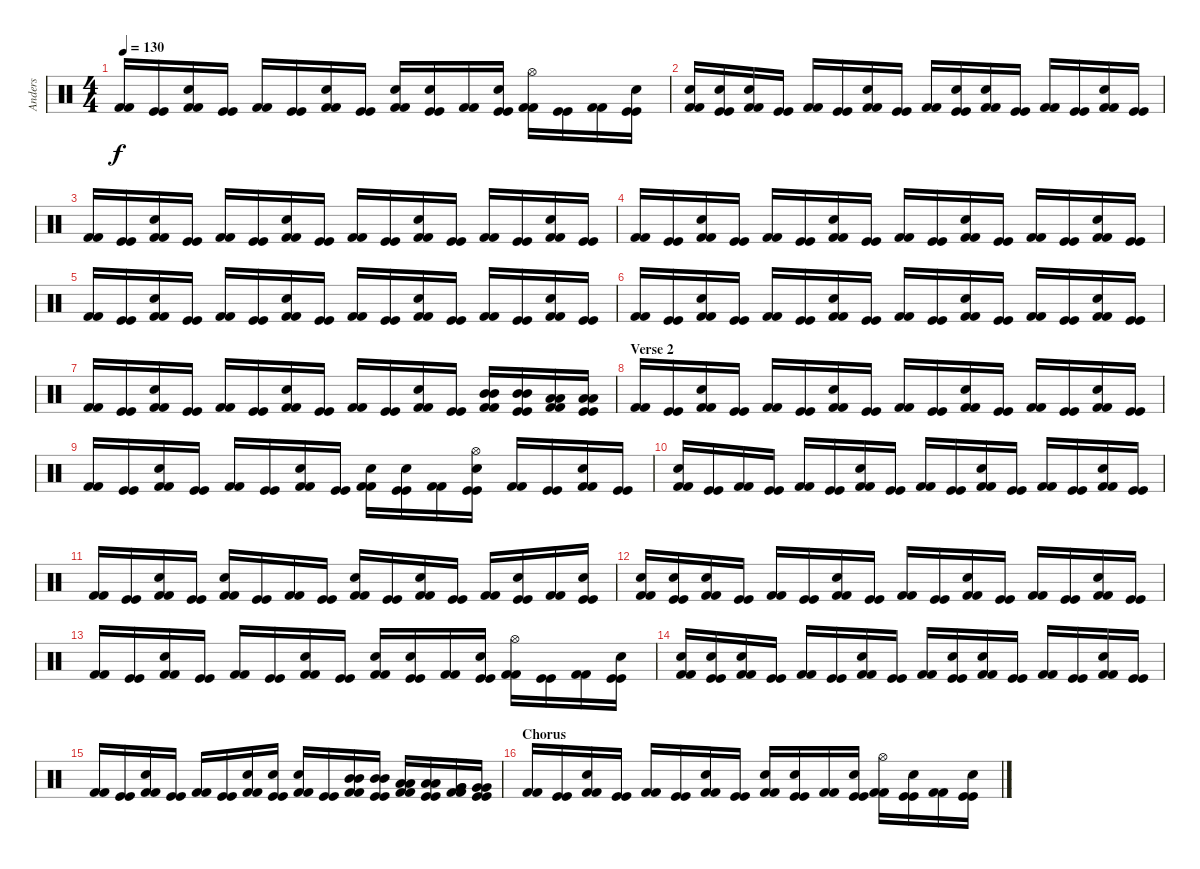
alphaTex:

\track ("Anders" "Anders") {instrument percussion}
\staff {score}
\articulation defaults
\ts (4 4)
\tempo 130
\clef neutral
\ks c
("Kick (hit) 2" "Kick (hit) 2").16{dy f} ("Kick (hit)" "Kick (hit)").16 ("Snare (hit) 2" "Kick (hit) 2" "Kick (hit) 2").16 ("Kick (hit)" "Kick (hit)").16 ("Kick (hit) 2" "Kick (hit) 2").16 ("Kick (hit)" "Kick (hit)").16 ("Snare (hit) 2" "Kick (hit) 2" "Kick (hit) 2").16 ("Kick (hit)" "Kick (hit)").16 ("Snare (hit) 2" "Kick (hit) 2" "Kick (hit) 2").16 ("Snare (hit) 2" "Kick (hit)" "Kick (hit)").16 ("Kick (hit) 2" "Kick (hit) 2").16 ("Snare (hit) 2" "Kick (hit)" "Kick (hit)").16 ("Hi-Hat (open)" "Kick (hit) 2" "Kick (hit) 2").16 ("Kick (hit)" "Kick (hit)").16 ("Kick (hit) 2" "Kick (hit) 2").16 ("Snare (hit) 2" "Kick (hit)" "Kick (hit)").16 |
("Snare (hit) 2" "Kick (hit) 2" "Kick (hit) 2").16 ("Snare (hit) 2" "Kick (hit)" "Kick (hit)").16 ("Snare (hit) 2" "Kick (hit) 2" "Kick (hit) 2").16 ("Kick (hit)" "Kick (hit)").16 ("Kick (hit) 2" "Kick (hit) 2").16 ("Kick (hit)" "Kick (hit)").16 ("Snare (hit) 2" "Kick (hit) 2" "Kick (hit) 2").16 ("Kick (hit)" "Kick (hit)").16 ("Kick (hit) 2" "Kick (hit) 2").16 ("Snare (hit) 2" "Kick (hit)" "Kick (hit)").16 ("Snare (hit) 2" "Kick (hit) 2" "Kick (hit) 2").16 ("Kick (hit)" "Kick (hit)").16 ("Kick (hit) 2" "Kick (hit) 2").16 ("Kick (hit)" "Kick (hit)").16 ("Snare (hit) 2" "Kick (hit) 2" "Kick (hit) 2").16 ("Kick (hit)" "Kick (hit)").16 |
("Kick (hit) 2" "Kick (hit) 2").16 ("Kick (hit)" "Kick (hit)").16 ("Snare (hit) 2" "Kick (hit) 2" "Kick (hit) 2").16 ("Kick (hit)" "Kick (hit)").16 ("Kick (hit) 2" "Kick (hit) 2").16 ("Kick (hit)" "Kick (hit)").16 ("Snare (hit) 2" "Kick (hit) 2" "Kick (hit) 2").16 ("Kick (hit)" "Kick (hit)").16 ("Kick (hit) 2" "Kick (hit) 2").16 ("Kick (hit)" "Kick (hit)").16 ("Snare (hit) 2" "Kick (hit) 2" "Kick (hit) 2").16 ("Kick (hit)" "Kick (hit)").16 ("Kick (hit) 2" "Kick (hit) 2").16 ("Kick (hit)" "Kick (hit)").16 ("Snare (hit) 2" "Kick (hit) 2" "Kick (hit) 2").16 ("Kick (hit)" "Kick (hit)").16 |
("Kick (hit) 2" "Kick (hit) 2").16 ("Kick (hit)" "Kick (hit)").16 ("Snare (hit) 2" "Kick (hit) 2" "Kick (hit) 2").16 ("Kick (hit)" "Kick (hit)").16 ("Kick (hit) 2" "Kick (hit) 2").16 ("Kick (hit)" "Kick (hit)").16 ("Snare (hit) 2" "Kick (hit) 2" "Kick (hit) 2").16 ("Kick (hit)" "Kick (hit)").16 ("Kick (hit) 2" "Kick (hit) 2").16 ("Kick (hit)" "Kick (hit)").16 ("Snare (hit) 2" "Kick (hit) 2" "Kick (hit) 2").16 ("Kick (hit)" "Kick (hit)").16 ("Kick (hit) 2" "Kick (hit) 2").16 ("Kick (hit)" "Kick (hit)").16 ("Snare (hit) 2" "Kick (hit) 2" "Kick (hit) 2").16 ("Kick (hit)" "Kick (hit)").16 |
("Kick (hit) 2" "Kick (hit) 2").16 ("Kick (hit)" "Kick (hit)").16 ("Snare (hit) 2" "Kick (hit) 2" "Kick (hit) 2").16 ("Kick (hit)" "Kick (hit)").16 ("Kick (hit) 2" "Kick (hit) 2").16 ("Kick (hit)" "Kick (hit)").16 ("Snare (hit) 2" "Kick (hit) 2" "Kick (hit) 2").16 ("Kick (hit)" "Kick (hit)").16 ("Kick (hit) 2" "Kick (hit) 2").16 ("Kick (hit)" "Kick (hit)").16 ("Snare (hit) 2" "Kick (hit) 2" "Kick (hit) 2").16 ("Kick (hit)" "Kick (hit)").16 ("Kick (hit) 2" "Kick (hit) 2").16 ("Kick (hit)" "Kick (hit)").16 ("Snare (hit) 2" "Kick (hit) 2" "Kick (hit) 2").16 ("Kick (hit)" "Kick (hit)").16 |
("Kick (hit) 2" "Kick (hit) 2").16 ("Kick (hit)" "Kick (hit)").16 ("Snare (hit) 2" "Kick (hit) 2" "Kick (hit) 2").16 ("Kick (hit)" "Kick (hit)").16 ("Kick (hit) 2" "Kick (hit) 2").16 ("Kick (hit)" "Kick (hit)").16 ("Snare (hit) 2" "Kick (hit) 2" "Kick (hit) 2").16 ("Kick (hit)" "Kick (hit)").16 ("Kick (hit) 2" "Kick (hit) 2").16 ("Kick (hit)" "Kick (hit)").16 ("Snare (hit) 2" "Kick (hit) 2" "Kick (hit) 2").16 ("Kick (hit)" "Kick (hit)").16 ("Kick (hit) 2" "Kick (hit) 2").16 ("Kick (hit)" "Kick (hit)").16 ("Snare (hit) 2" "Kick (hit) 2" "Kick (hit) 2").16 ("Kick (hit)" "Kick (hit)").16 |
("Kick (hit) 2" "Kick (hit) 2").16 ("Kick (hit)" "Kick (hit)").16 ("Snare (hit) 2" "Kick (hit) 2" "Kick (hit) 2").16 ("Kick (hit)" "Kick (hit)").16 ("Kick (hit) 2" "Kick (hit) 2").16 ("Kick (hit)" "Kick (hit)").16 ("Snare (hit) 2" "Kick (hit) 2" "Kick (hit) 2").16 ("Kick (hit)" "Kick (hit)").16 ("Kick (hit) 2" "Kick (hit) 2").16 ("Kick (hit)" "Kick (hit)").16 ("Snare (hit) 2" "Kick (hit) 2" "Kick (hit) 2").16 ("Kick (hit)" "Kick (hit)").16 ("Mid Tom (hit)" "Mid Tom (hit)" "Kick (hit) 2" "Kick (hit) 2").16 ("Mid Tom (hit)" "Mid Tom (hit)" "Kick (hit)" "Kick (hit)").16 ("Low Tom (hit)" "Low Tom (hit)" "Kick (hit) 2" "Kick (hit) 2").16 ("Low Tom (hit)" "Low Tom (hit)" "Kick (hit)" "Kick (hit)").16 |
\section ("" "Verse 2")
("Kick (hit) 2" "Kick (hit) 2").16 ("Kick (hit)" "Kick (hit)").16 ("Snare (hit) 2" "Kick (hit) 2" "Kick (hit) 2").16 ("Kick (hit)" "Kick (hit)").16 ("Kick (hit) 2" "Kick (hit) 2").16 ("Kick (hit)" "Kick (hit)").16 ("Snare (hit) 2" "Kick (hit) 2" "Kick (hit) 2").16 ("Kick (hit)" "Kick (hit)").16 ("Kick (hit) 2" "Kick (hit) 2").16 ("Kick (hit)" "Kick (hit)").16 ("Snare (hit) 2" "Kick (hit) 2" "Kick (hit) 2").16 ("Kick (hit)" "Kick (hit)").16 ("Kick (hit) 2" "Kick (hit) 2").16 ("Kick (hit)" "Kick (hit)").16 ("Snare (hit) 2" "Kick (hit) 2" "Kick (hit) 2").16 ("Kick (hit)" "Kick (hit)").16 |
("Kick (hit) 2" "Kick (hit) 2").16 ("Kick (hit)" "Kick (hit)").16 ("Snare (hit) 2" "Kick (hit) 2" "Kick (hit) 2").16 ("Kick (hit)" "Kick (hit)").16 ("Kick (hit) 2" "Kick (hit) 2").16 ("Kick (hit)" "Kick (hit)").16 ("Snare (hit) 2" "Kick (hit) 2" "Kick (hit) 2").16 ("Kick (hit)" "Kick (hit)").16 ("Snare (hit) 2" "Kick (hit) 2" "Kick (hit) 2").16 ("Snare (hit) 2" "Kick (hit)" "Kick (hit)").16 ("Kick (hit) 2" "Kick (hit) 2").16 ("Hi-Hat (open)" "Snare (hit) 2" "Kick (hit)" "Kick (hit)").16 ("Kick (hit) 2" "Kick (hit) 2").16 ("Kick (hit)" "Kick (hit)").16 ("Snare (hit) 2" "Kick (hit) 2" "Kick (hit) 2").16 ("Kick (hit)" "Kick (hit)").16 |
("Snare (hit) 2" "Kick (hit) 2" "Kick (hit) 2").16 ("Kick (hit)" "Kick (hit)").16 ("Kick (hit) 2" "Kick (hit) 2").16 ("Kick (hit)" "Kick (hit)").16 ("Kick (hit) 2" "Kick (hit) 2").16 ("Kick (hit)" "Kick (hit)").16 ("Snare (hit) 2" "Kick (hit) 2" "Kick (hit) 2").16 ("Kick (hit)" "Kick (hit)").16 ("Kick (hit) 2" "Kick (hit) 2").16 ("Kick (hit)" "Kick (hit)").16 ("Snare (hit) 2" "Kick (hit) 2" "Kick (hit) 2").16 ("Kick (hit)" "Kick (hit)").16 ("Kick (hit) 2" "Kick (hit) 2").16 ("Kick (hit)" "Kick (hit)").16 ("Snare (hit) 2" "Kick (hit) 2" "Kick (hit) 2").16 ("Kick (hit)" "Kick (hit)").16 |
("Kick (hit) 2" "Kick (hit) 2").16 ("Kick (hit)" "Kick (hit)").16 ("Snare (hit) 2" "Kick (hit) 2" "Kick (hit) 2").16 ("Kick (hit)" "Kick (hit)").16 ("Snare (hit) 2" "Kick (hit) 2" "Kick (hit) 2").16 ("Kick (hit)" "Kick (hit)").16 ("Kick (hit) 2" "Kick (hit) 2").16 ("Kick (hit)" "Kick (hit)").16 ("Snare (hit) 2" "Kick (hit) 2" "Kick (hit) 2").16 ("Kick (hit)" "Kick (hit)").16 ("Snare (hit) 2" "Kick (hit) 2" "Kick (hit) 2").16 ("Kick (hit)" "Kick (hit)").16 ("Kick (hit) 2" "Kick (hit) 2").16 ("Snare (hit) 2" "Kick (hit)" "Kick (hit)").16 ("Kick (hit) 2" "Kick (hit) 2").16 ("Snare (hit) 2" "Kick (hit)" "Kick (hit)").16 |
("Snare (hit) 2" "Kick (hit) 2" "Kick (hit) 2").16 ("Snare (hit) 2" "Kick (hit)" "Kick (hit)").16 ("Snare (hit) 2" "Kick (hit) 2" "Kick (hit) 2").16 ("Kick (hit)" "Kick (hit)").16 ("Kick (hit) 2" "Kick (hit) 2").16 ("Kick (hit)" "Kick (hit)").16 ("Snare (hit) 2" "Kick (hit) 2" "Kick (hit) 2").16 ("Kick (hit)" "Kick (hit)").16 ("Kick (hit) 2" "Kick (hit) 2").16 ("Kick (hit)" "Kick (hit)").16 ("Snare (hit) 2" "Kick (hit) 2" "Kick (hit) 2").16 ("Kick (hit)" "Kick (hit)").16 ("Kick (hit) 2" "Kick (hit) 2").16 ("Kick (hit)" "Kick (hit)").16 ("Snare (hit) 2" "Kick (hit) 2" "Kick (hit) 2").16 ("Kick (hit)" "Kick (hit)").16 |
("Kick (hit) 2" "Kick (hit) 2").16 ("Kick (hit)" "Kick (hit)").16 ("Snare (hit) 2" "Kick (hit) 2" "Kick (hit) 2").16 ("Kick (hit)" "Kick (hit)").16 ("Kick (hit) 2" "Kick (hit) 2").16 ("Kick (hit)" "Kick (hit)").16 ("Snare (hit) 2" "Kick (hit) 2" "Kick (hit) 2").16 ("Kick (hit)" "Kick (hit)").16 ("Snare (hit) 2" "Kick (hit) 2" "Kick (hit) 2").16 ("Snare (hit) 2" "Kick (hit)" "Kick (hit)").16 ("Kick (hit) 2" "Kick (hit) 2").16 ("Snare (hit) 2" "Kick (hit)" "Kick (hit)").16 ("Hi-Hat (open)" "Kick (hit) 2" "Kick (hit) 2").16 ("Kick (hit)" "Kick (hit)").16 ("Kick (hit) 2" "Kick (hit) 2").16 ("Snare (hit) 2" "Kick (hit)" "Kick (hit)").16 |
("Snare (hit) 2" "Kick (hit) 2" "Kick (hit) 2").16 ("Snare (hit) 2" "Kick (hit)" "Kick (hit)").16 ("Snare (hit) 2" "Kick (hit) 2" "Kick (hit) 2").16 ("Kick (hit)" "Kick (hit)").16 ("Kick (hit) 2" "Kick (hit) 2").16 ("Kick (hit)" "Kick (hit)").16 ("Snare (hit) 2" "Kick (hit) 2" "Kick (hit) 2").16 ("Kick (hit)" "Kick (hit)").16 ("Kick (hit) 2" "Kick (hit) 2").16 ("Snare (hit) 2" "Kick (hit)" "Kick (hit)").16 ("Snare (hit) 2" "Kick (hit) 2" "Kick (hit) 2").16 ("Kick (hit)" "Kick (hit)").16 ("Kick (hit) 2" "Kick (hit) 2").16 ("Kick (hit)" "Kick (hit)").16 ("Snare (hit) 2" "Kick (hit) 2" "Kick (hit) 2").16 ("Kick (hit)" "Kick (hit)").16 |
("Kick (hit) 2" "Kick (hit) 2").16 ("Kick (hit)" "Kick (hit)").16 ("Snare (hit) 2" "Kick (hit) 2" "Kick (hit) 2").16 ("Kick (hit)" "Kick (hit)").16 ("Kick (hit) 2" "Kick (hit) 2").16 ("Kick (hit)" "Kick (hit)").16 ("Snare (hit) 2" "Kick (hit) 2" "Kick (hit) 2").16 ("Snare (hit) 2" "Kick (hit)" "Kick (hit)").16 ("Snare (hit) 2" "Kick (hit) 2" "Kick (hit) 2").16 ("Kick (hit)" "Kick (hit)").16 ("Mid Tom (hit)" "Mid Tom (hit)" "Kick (hit) 2" "Kick (hit) 2").16 ("Mid Tom (hit)" "Mid Tom (hit)" "Kick (hit)" "Kick (hit)").16 ("Low Tom (hit)" "Low Tom (hit)" "Kick (hit) 2" "Kick (hit) 2").16 ("Low Tom (hit)" "Low Tom (hit)" "Kick (hit)" "Kick (hit)").16 ("Very Low Tom (hit)" "Very Low Tom (hit)" "Kick (hit) 2" "Kick (hit) 2").16 ("Very Low Tom (hit)" "Very Low Tom (hit)" "Kick (hit)" "Kick (hit)").16 |
\section ("" "Chorus")
("Kick (hit) 2" "Kick (hit) 2").16 ("Kick (hit)" "Kick (hit)").16 ("Snare (hit) 2" "Kick (hit) 2" "Kick (hit) 2").16 ("Kick (hit)" "Kick (hit)").16 ("Kick (hit) 2" "Kick (hit) 2").16 ("Kick (hit)" "Kick (hit)").16 ("Snare (hit) 2" "Kick (hit) 2" "Kick (hit) 2").16 ("Kick (hit)" "Kick (hit)").16 ("Snare (hit) 2" "Kick (hit) 2" "Kick (hit) 2").16 ("Snare (hit) 2" "Kick (hit)" "Kick (hit)").16 ("Kick (hit) 2" "Kick (hit) 2").16 ("Snare (hit) 2" "Kick (hit)" "Kick (hit)").16 ("Hi-Hat (open)" "Kick (hit) 2" "Kick (hit) 2").16 ("Snare (hit) 2" "Kick (hit)" "Kick (hit)").16 ("Kick (hit) 2" "Kick (hit) 2").16 ("Snare (hit) 2" "Kick (hit)" "Kick (hit)").16
